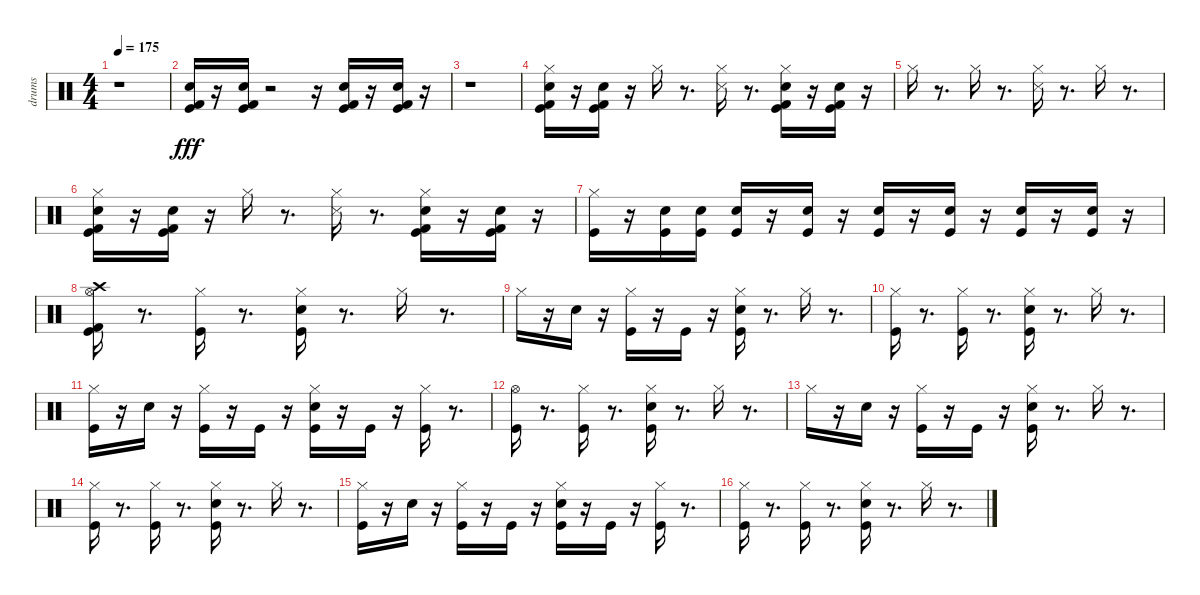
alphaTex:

\track ("drums" "drums") {instrument percussion}
\staff {score}
\articulation defaults
\ts (4 4)
\tempo 175
\clef neutral
\ks c
r.1{dy fff} |
("Kick (hit) 2" "Kick (hit)" "Snare (hit) 2").16 r.16 ("Snare (hit) 2" "Kick (hit)" "Kick (hit) 2").16 r.2 r.16 ("Kick (hit) 2" "Kick (hit)" "Snare (hit) 2").16 r.16 ("Snare (hit) 2" "Kick (hit)" "Kick (hit) 2").16 r.16 |
r.1 |
("Kick (hit) 2" "Kick (hit)" "Snare (hit) 2" "Hi-Hat (closed)").16 r.16 ("Snare (hit) 2" "Kick (hit)" "Kick (hit) 2").16 r.16 "Hi-Hat (closed)".16 r.8{d} ("Hi-Hat (closed)" "Metronome (hit)").16 r.8{d} ("Kick (hit) 2" "Kick (hit)" "Snare (hit) 2" "Hi-Hat (closed)").16 r.16 ("Snare (hit) 2" "Kick (hit)" "Kick (hit) 2").16 r.16 |
"Hi-Hat (closed)".16 r.8{d} "Hi-Hat (closed)".16 r.8{d} ("Hi-Hat (closed)" "Metronome (hit)").16 r.8{d} "Hi-Hat (closed)".16 r.8{d} |
("Kick (hit) 2" "Kick (hit)" "Snare (hit) 2" "Hi-Hat (closed)").16 r.16 ("Snare (hit) 2" "Kick (hit)" "Kick (hit) 2").16 r.16 "Hi-Hat (closed)".16 r.8{d} ("Hi-Hat (closed)" "Metronome (hit)").16 r.8{d} ("Kick (hit) 2" "Kick (hit)" "Snare (hit) 2" "Hi-Hat (closed)").16 r.16 ("Snare (hit) 2" "Kick (hit)" "Kick (hit) 2").16 r.16 |
("Hi-Hat (closed)" "Kick (hit)").16 r.16 ("Kick (hit)" "Snare (hit) 2").16 ("Kick (hit)" "Snare (hit) 2").16 ("Kick (hit)" "Snare (hit) 2").16 r.16 ("Kick (hit)" "Snare (hit) 2").16 r.16 ("Kick (hit)" "Snare (hit) 2").16 r.16 ("Kick (hit)" "Snare (hit) 2").16 r.16 ("Kick (hit)" "Snare (hit) 2").16 r.16 ("Kick (hit)" "Snare (hit) 2").16 r.16 |
("Kick (hit)" "Hi-Hat (open)" "Crash high (hit)" "Kick (hit) 2").16 r.8{d} ("Kick (hit)" "Hi-Hat (closed)").16 r.8{d} ("Snare (hit) 2" "Kick (hit)" "Hi-Hat (closed)").16 r.8{d} "Hi-Hat (closed)".16 r.8{d} |
"Hi-Hat (closed)".16 r.16 "Snare (hit) 2".16 r.16 ("Hi-Hat (closed)" "Kick (hit)").16 r.16 "Kick (hit)".16 r.16 ("Hi-Hat (closed)" "Snare (hit) 2" "Kick (hit)").16 r.8{d} "Hi-Hat (closed)".16 r.8{d} |
("Kick (hit)" "Hi-Hat (closed)").16 r.8{d} ("Kick (hit)" "Hi-Hat (closed)").16 r.8{d} ("Snare (hit) 2" "Kick (hit)" "Hi-Hat (closed)").16 r.8{d} "Hi-Hat (closed)".16 r.8{d} |
("Hi-Hat (closed)" "Kick (hit)").16 r.16 "Snare (hit) 2".16 r.16 ("Hi-Hat (closed)" "Kick (hit)").16 r.16 "Kick (hit)".16 r.16 ("Hi-Hat (closed)" "Snare (hit) 2" "Kick (hit)").16 r.16 "Kick (hit)".16 r.16 ("Hi-Hat (closed)" "Kick (hit)").16 r.8{d} |
("Kick (hit)" "Hi-Hat (open)").16 r.8{d} ("Kick (hit)" "Hi-Hat (closed)").16 r.8{d} ("Snare (hit) 2" "Kick (hit)" "Hi-Hat (closed)").16 r.8{d} "Hi-Hat (closed)".16 r.8{d} |
"Hi-Hat (closed)".16 r.16 "Snare (hit) 2".16 r.16 ("Hi-Hat (closed)" "Kick (hit)").16 r.16 "Kick (hit)".16 r.16 ("Hi-Hat (closed)" "Snare (hit) 2" "Kick (hit)").16 r.8{d} "Hi-Hat (closed)".16 r.8{d} |
("Kick (hit)" "Hi-Hat (closed)").16 r.8{d} ("Kick (hit)" "Hi-Hat (closed)").16 r.8{d} ("Snare (hit) 2" "Kick (hit)" "Hi-Hat (closed)").16 r.8{d} "Hi-Hat (closed)".16 r.8{d} |
("Hi-Hat (closed)" "Kick (hit)").16 r.16 "Snare (hit) 2".16 r.16 ("Hi-Hat (closed)" "Kick (hit)").16 r.16 "Kick (hit)".16 r.16 ("Hi-Hat (closed)" "Snare (hit) 2" "Kick (hit)").16 r.16 "Kick (hit)".16 r.16 ("Hi-Hat (closed)" "Kick (hit)").16 r.8{d} |
("Kick (hit)" "Hi-Hat (closed)").16 r.8{d} ("Kick (hit)" "Hi-Hat (closed)").16 r.8{d} ("Snare (hit) 2" "Kick (hit)" "Hi-Hat (closed)").16 r.8{d} "Hi-Hat (closed)".16 r.8{d}
